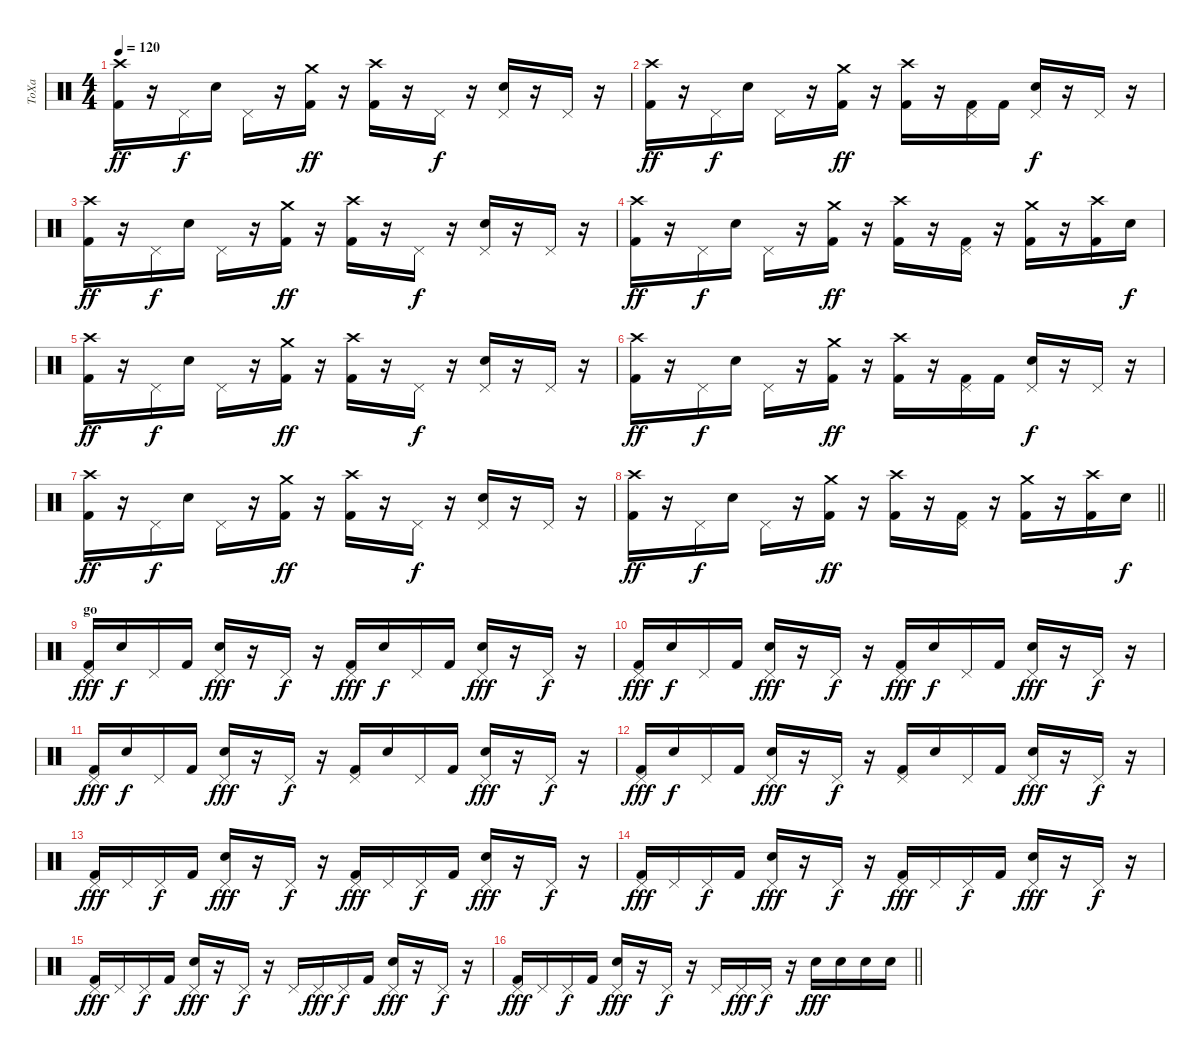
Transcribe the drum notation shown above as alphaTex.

\track ("ТоХа" "ТоХа") {instrument percussion}
\staff {score}
\articulation defaults
\ts (4 4)
\tempo 120
\clef neutral
\ks c
("Crash high (hit)" "Kick (hit) 2").16{dy ff} r.16 "Pedal Hi-Hat (hit)".16{dy f} "Electric Snare (hit)".16 "Pedal Hi-Hat (hit)".16 r.16 ("Crash medium (hit)" "Kick (hit) 2").16{dy ff} r.16 ("Crash high (hit)" "Kick (hit) 2").16 r.16 "Pedal Hi-Hat (hit)".16{dy f} r.16 ("Pedal Hi-Hat (hit)" "Electric Snare (hit)").16 r.16 "Pedal Hi-Hat (hit)".16 r.16 |
("Crash high (hit)" "Kick (hit) 2").16{dy ff} r.16 "Pedal Hi-Hat (hit)".16{dy f} "Electric Snare (hit)".16 "Pedal Hi-Hat (hit)".16 r.16 ("Crash medium (hit)" "Kick (hit) 2").16{dy ff} r.16 ("Crash high (hit)" "Kick (hit) 2").16 r.16 ("Pedal Hi-Hat (hit)" "Kick (hit) 2").16 "Kick (hit) 2".16 ("Pedal Hi-Hat (hit)" "Electric Snare (hit)").16{dy f} r.16 "Pedal Hi-Hat (hit)".16 r.16 |
("Crash high (hit)" "Kick (hit) 2").16{dy ff} r.16 "Pedal Hi-Hat (hit)".16{dy f} "Electric Snare (hit)".16 "Pedal Hi-Hat (hit)".16 r.16 ("Crash medium (hit)" "Kick (hit) 2").16{dy ff} r.16 ("Crash high (hit)" "Kick (hit) 2").16 r.16 "Pedal Hi-Hat (hit)".16{dy f} r.16 ("Pedal Hi-Hat (hit)" "Electric Snare (hit)").16 r.16 "Pedal Hi-Hat (hit)".16 r.16 |
("Crash high (hit)" "Kick (hit) 2").16{dy ff} r.16 "Pedal Hi-Hat (hit)".16{dy f} "Electric Snare (hit)".16 "Pedal Hi-Hat (hit)".16 r.16 ("Crash medium (hit)" "Kick (hit) 2").16{dy ff} r.16 ("Crash high (hit)" "Kick (hit) 2").16 r.16 ("Pedal Hi-Hat (hit)" "Kick (hit) 2").16 r.16 ("Crash medium (hit)" "Kick (hit) 2").16 r.16 ("Crash high (hit)" "Kick (hit) 2").16 "Electric Snare (hit)".16{dy f} |
("Crash high (hit)" "Kick (hit) 2").16{dy ff} r.16 "Pedal Hi-Hat (hit)".16{dy f} "Electric Snare (hit)".16 "Pedal Hi-Hat (hit)".16 r.16 ("Crash medium (hit)" "Kick (hit) 2").16{dy ff} r.16 ("Crash high (hit)" "Kick (hit) 2").16 r.16 "Pedal Hi-Hat (hit)".16{dy f} r.16 ("Pedal Hi-Hat (hit)" "Electric Snare (hit)").16 r.16 "Pedal Hi-Hat (hit)".16 r.16 |
("Crash high (hit)" "Kick (hit) 2").16{dy ff} r.16 "Pedal Hi-Hat (hit)".16{dy f} "Electric Snare (hit)".16 "Pedal Hi-Hat (hit)".16 r.16 ("Crash medium (hit)" "Kick (hit) 2").16{dy ff} r.16 ("Crash high (hit)" "Kick (hit) 2").16 r.16 ("Pedal Hi-Hat (hit)" "Kick (hit) 2").16 "Kick (hit) 2".16 ("Pedal Hi-Hat (hit)" "Electric Snare (hit)").16{dy f} r.16 "Pedal Hi-Hat (hit)".16 r.16 |
("Crash high (hit)" "Kick (hit) 2").16{dy ff} r.16 "Pedal Hi-Hat (hit)".16{dy f} "Electric Snare (hit)".16 "Pedal Hi-Hat (hit)".16 r.16 ("Crash medium (hit)" "Kick (hit) 2").16{dy ff} r.16 ("Crash high (hit)" "Kick (hit) 2").16 r.16 "Pedal Hi-Hat (hit)".16{dy f} r.16 ("Pedal Hi-Hat (hit)" "Electric Snare (hit)").16 r.16 "Pedal Hi-Hat (hit)".16 r.16 |
\barLineRight lightlight
("Crash high (hit)" "Kick (hit) 2").16{dy ff} r.16 "Pedal Hi-Hat (hit)".16{dy f} "Electric Snare (hit)".16 "Pedal Hi-Hat (hit)".16 r.16 ("Crash medium (hit)" "Kick (hit) 2").16{dy ff} r.16 ("Crash high (hit)" "Kick (hit) 2").16 r.16 ("Pedal Hi-Hat (hit)" "Kick (hit) 2").16 r.16 ("Crash medium (hit)" "Kick (hit) 2").16 r.16 ("Crash high (hit)" "Kick (hit) 2").16 "Electric Snare (hit)".16{dy f} |
\section ("" "go")
("Pedal Hi-Hat (hit)" "Kick (hit) 2").16{dy fff} "Electric Snare (hit)".16{dy f} "Pedal Hi-Hat (hit)".16 "Kick (hit) 2".16 ("Pedal Hi-Hat (hit)" "Electric Snare (hit)").16{dy fff} r.16 "Pedal Hi-Hat (hit)".16{dy f} r.16 ("Pedal Hi-Hat (hit)" "Kick (hit) 2").16{dy fff} "Electric Snare (hit)".16{dy f} "Pedal Hi-Hat (hit)".16 "Kick (hit) 2".16 ("Pedal Hi-Hat (hit)" "Electric Snare (hit)").16{dy fff} r.16 "Pedal Hi-Hat (hit)".16{dy f} r.16 |
("Pedal Hi-Hat (hit)" "Kick (hit) 2").16{dy fff} "Electric Snare (hit)".16{dy f} "Pedal Hi-Hat (hit)".16 "Kick (hit) 2".16 ("Pedal Hi-Hat (hit)" "Electric Snare (hit)").16{dy fff} r.16 "Pedal Hi-Hat (hit)".16{dy f} r.16 ("Pedal Hi-Hat (hit)" "Kick (hit) 2").16{dy fff} "Electric Snare (hit)".16{dy f} "Pedal Hi-Hat (hit)".16 "Kick (hit) 2".16 ("Pedal Hi-Hat (hit)" "Electric Snare (hit)").16{dy fff} r.16 "Pedal Hi-Hat (hit)".16{dy f} r.16 |
("Pedal Hi-Hat (hit)" "Kick (hit) 2").16{dy fff} "Electric Snare (hit)".16{dy f} "Pedal Hi-Hat (hit)".16 "Kick (hit) 2".16 ("Pedal Hi-Hat (hit)" "Electric Snare (hit)").16{dy fff} r.16 "Pedal Hi-Hat (hit)".16{dy f} r.16 ("Pedal Hi-Hat (hit)" "Kick (hit) 2").16 "Electric Snare (hit)".16 "Pedal Hi-Hat (hit)".16 "Kick (hit) 2".16 ("Pedal Hi-Hat (hit)" "Electric Snare (hit)").16{dy fff} r.16 "Pedal Hi-Hat (hit)".16{dy f} r.16 |
("Pedal Hi-Hat (hit)" "Kick (hit) 2").16{dy fff} "Electric Snare (hit)".16{dy f} "Pedal Hi-Hat (hit)".16 "Kick (hit) 2".16 ("Pedal Hi-Hat (hit)" "Electric Snare (hit)").16{dy fff} r.16 "Pedal Hi-Hat (hit)".16{dy f} r.16 ("Pedal Hi-Hat (hit)" "Kick (hit) 2").16 "Electric Snare (hit)".16 "Pedal Hi-Hat (hit)".16 "Kick (hit) 2".16 ("Pedal Hi-Hat (hit)" "Electric Snare (hit)").16{dy fff} r.16 "Pedal Hi-Hat (hit)".16{dy f} r.16 |
("Pedal Hi-Hat (hit)" "Kick (hit) 2").16{dy fff} "Pedal Hi-Hat (hit)".16 "Pedal Hi-Hat (hit)".16{dy f} "Kick (hit) 2".16 ("Pedal Hi-Hat (hit)" "Electric Snare (hit)").16{dy fff} r.16 "Pedal Hi-Hat (hit)".16{dy f} r.16 ("Pedal Hi-Hat (hit)" "Kick (hit) 2").16{dy fff} "Pedal Hi-Hat (hit)".16 "Pedal Hi-Hat (hit)".16{dy f} "Kick (hit) 2".16 ("Pedal Hi-Hat (hit)" "Electric Snare (hit)").16{dy fff} r.16 "Pedal Hi-Hat (hit)".16{dy f} r.16 |
("Pedal Hi-Hat (hit)" "Kick (hit) 2").16{dy fff} "Pedal Hi-Hat (hit)".16 "Pedal Hi-Hat (hit)".16{dy f} "Kick (hit) 2".16 ("Pedal Hi-Hat (hit)" "Electric Snare (hit)").16{dy fff} r.16 "Pedal Hi-Hat (hit)".16{dy f} r.16 ("Pedal Hi-Hat (hit)" "Kick (hit) 2").16{dy fff} "Pedal Hi-Hat (hit)".16 "Pedal Hi-Hat (hit)".16{dy f} "Kick (hit) 2".16 ("Pedal Hi-Hat (hit)" "Electric Snare (hit)").16{dy fff} r.16 "Pedal Hi-Hat (hit)".16{dy f} r.16 |
("Pedal Hi-Hat (hit)" "Kick (hit) 2").16{dy fff} "Pedal Hi-Hat (hit)".16 "Pedal Hi-Hat (hit)".16{dy f} "Kick (hit) 2".16 ("Pedal Hi-Hat (hit)" "Electric Snare (hit)").16{dy fff} r.16 "Pedal Hi-Hat (hit)".16{dy f} r.16 "Pedal Hi-Hat (hit)".16 "Pedal Hi-Hat (hit)".16{dy fff} "Pedal Hi-Hat (hit)".16{dy f} "Kick (hit) 2".16 ("Pedal Hi-Hat (hit)" "Electric Snare (hit)").16{dy fff} r.16 "Pedal Hi-Hat (hit)".16{dy f} r.16 |
\barLineRight lightlight
("Pedal Hi-Hat (hit)" "Kick (hit) 2").16{dy fff} "Pedal Hi-Hat (hit)".16 "Pedal Hi-Hat (hit)".16{dy f} "Kick (hit) 2".16 ("Pedal Hi-Hat (hit)" "Electric Snare (hit)").16{dy fff} r.16 "Pedal Hi-Hat (hit)".16{dy f} r.16 "Pedal Hi-Hat (hit)".16 "Pedal Hi-Hat (hit)".16{dy fff} "Pedal Hi-Hat (hit)".16{dy f} r.16 "Electric Snare (hit)".16{dy fff} "Electric Snare (hit)".16 "Electric Snare (hit)".16 "Electric Snare (hit)".16
